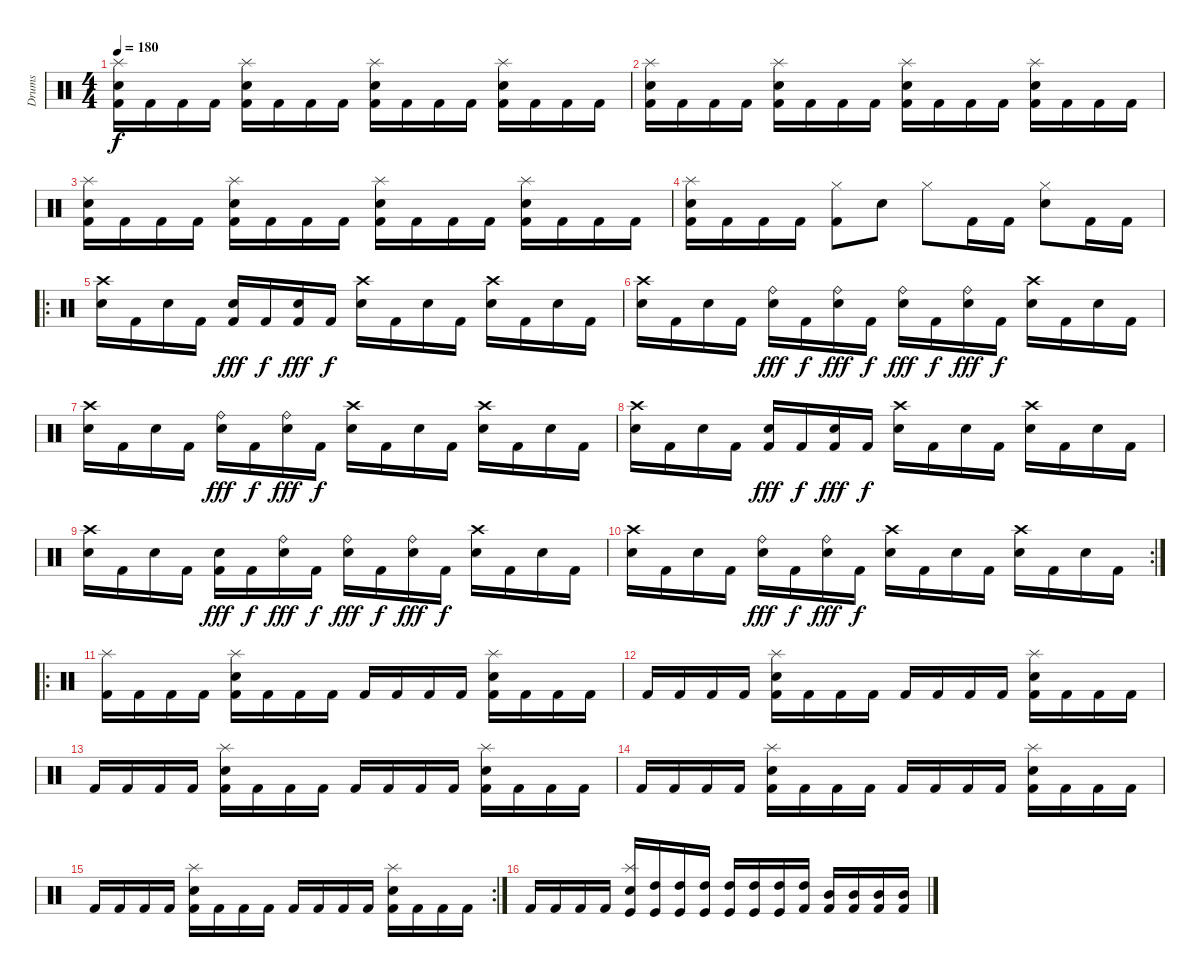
\track ("Drums" "Drums") {instrument percussion}
\staff {score}
\articulation defaults
\ts (4 4)
\tempo 180
\clef neutral
\ks c
("Kick (hit) 2" "Snare (hit) 2" "Splash (hit)").16{dy f} "Kick (hit) 2".16 "Kick (hit) 2".16 "Kick (hit) 2".16 ("Kick (hit) 2" "Snare (hit) 2" "Splash (hit)").16 "Kick (hit) 2".16 "Kick (hit) 2".16 "Kick (hit) 2".16 ("Kick (hit) 2" "Snare (hit) 2" "Splash (hit)").16 "Kick (hit) 2".16 "Kick (hit) 2".16 "Kick (hit) 2".16 ("Kick (hit) 2" "Snare (hit) 2" "Splash (hit)").16 "Kick (hit) 2".16 "Kick (hit) 2".16 "Kick (hit) 2".16 |
("Kick (hit) 2" "Snare (hit) 2" "Splash (hit)").16 "Kick (hit) 2".16 "Kick (hit) 2".16 "Kick (hit) 2".16 ("Kick (hit) 2" "Snare (hit) 2" "Splash (hit)").16 "Kick (hit) 2".16 "Kick (hit) 2".16 "Kick (hit) 2".16 ("Kick (hit) 2" "Snare (hit) 2" "Splash (hit)").16 "Kick (hit) 2".16 "Kick (hit) 2".16 "Kick (hit) 2".16 ("Kick (hit) 2" "Snare (hit) 2" "Splash (hit)").16 "Kick (hit) 2".16 "Kick (hit) 2".16 "Kick (hit) 2".16 |
("Kick (hit) 2" "Snare (hit) 2" "Splash (hit)").16 "Kick (hit) 2".16 "Kick (hit) 2".16 "Kick (hit) 2".16 ("Kick (hit) 2" "Snare (hit) 2" "Splash (hit)").16 "Kick (hit) 2".16 "Kick (hit) 2".16 "Kick (hit) 2".16 ("Kick (hit) 2" "Snare (hit) 2" "Splash (hit)").16 "Kick (hit) 2".16 "Kick (hit) 2".16 "Kick (hit) 2".16 ("Kick (hit) 2" "Snare (hit) 2" "Splash (hit)").16 "Kick (hit) 2".16 "Kick (hit) 2".16 "Kick (hit) 2".16 |
("Kick (hit) 2" "Snare (hit) 2" "Splash (hit)").16 "Kick (hit) 2".16 "Kick (hit) 2".16 "Kick (hit) 2".16 ("Kick (hit) 2" "Hi-Hat (closed)").8 "Snare (hit) 2".8 "Hi-Hat (closed)".8 "Kick (hit) 2".16 "Kick (hit) 2".16 ("Snare (hit) 2" "Hi-Hat (closed)").8 "Kick (hit) 2".16 "Kick (hit) 2".16 |
\ro
("Snare (hit) 2" "Crash high (hit)").16 "Kick (hit) 2".16 "Snare (hit) 2".16 "Kick (hit) 2".16 ("Kick (hit) 2" "Snare (hit) 2").16{dy fff} "Kick (hit) 2".16{dy f} ("Kick (hit) 2" "Snare (hit) 2").16{dy fff} "Kick (hit) 2".16{dy f} ("Snare (hit) 2" "Crash high (hit)").16 "Kick (hit) 2".16 "Snare (hit) 2".16 "Kick (hit) 2".16 ("Snare (hit) 2" "Crash high (hit)").16 "Kick (hit) 2".16 "Snare (hit) 2".16 "Kick (hit) 2".16 |
("Snare (hit) 2" "Crash high (hit)").16 "Kick (hit) 2".16 "Snare (hit) 2".16 "Kick (hit) 2".16 ("Ride (bell)" "Snare (hit) 2").16{dy fff} "Kick (hit) 2".16{dy f} ("Ride (bell)" "Snare (hit) 2").16{dy fff} "Kick (hit) 2".16{dy f} ("Ride (bell)" "Snare (hit) 2").16{dy fff} "Kick (hit) 2".16{dy f} ("Ride (bell)" "Snare (hit) 2").16{dy fff} "Kick (hit) 2".16{dy f} ("Snare (hit) 2" "Crash high (hit)").16 "Kick (hit) 2".16 "Snare (hit) 2".16 "Kick (hit) 2".16 |
("Snare (hit) 2" "Crash high (hit)").16 "Kick (hit) 2".16 "Snare (hit) 2".16 "Kick (hit) 2".16 ("Ride (bell)" "Snare (hit) 2").16{dy fff} "Kick (hit) 2".16{dy f} ("Ride (bell)" "Snare (hit) 2").16{dy fff} "Kick (hit) 2".16{dy f} ("Snare (hit) 2" "Crash high (hit)").16 "Kick (hit) 2".16 "Snare (hit) 2".16 "Kick (hit) 2".16 ("Snare (hit) 2" "Crash high (hit)").16 "Kick (hit) 2".16 "Snare (hit) 2".16 "Kick (hit) 2".16 |
("Snare (hit) 2" "Crash high (hit)").16 "Kick (hit) 2".16 "Snare (hit) 2".16 "Kick (hit) 2".16 ("Kick (hit) 2" "Snare (hit) 2").16{dy fff} "Kick (hit) 2".16{dy f} ("Kick (hit) 2" "Snare (hit) 2").16{dy fff} "Kick (hit) 2".16{dy f} ("Snare (hit) 2" "Crash high (hit)").16 "Kick (hit) 2".16 "Snare (hit) 2".16 "Kick (hit) 2".16 ("Snare (hit) 2" "Crash high (hit)").16 "Kick (hit) 2".16 "Snare (hit) 2".16 "Kick (hit) 2".16 |
("Snare (hit) 2" "Crash high (hit)").16 "Kick (hit) 2".16 "Snare (hit) 2".16 "Kick (hit) 2".16 ("Kick (hit) 2" "Snare (hit) 2").16{dy fff} "Kick (hit) 2".16{dy f} ("Ride (bell)" "Snare (hit) 2").16{dy fff} "Kick (hit) 2".16{dy f} ("Ride (bell)" "Snare (hit) 2").16{dy fff} "Kick (hit) 2".16{dy f} ("Ride (bell)" "Snare (hit) 2").16{dy fff} "Kick (hit) 2".16{dy f} ("Snare (hit) 2" "Crash high (hit)").16 "Kick (hit) 2".16 "Snare (hit) 2".16 "Kick (hit) 2".16 |
\rc 2
("Snare (hit) 2" "Crash high (hit)").16 "Kick (hit) 2".16 "Snare (hit) 2".16 "Kick (hit) 2".16 ("Ride (bell)" "Snare (hit) 2").16{dy fff} "Kick (hit) 2".16{dy f} ("Ride (bell)" "Snare (hit) 2").16{dy fff} "Kick (hit) 2".16{dy f} ("Snare (hit) 2" "Crash high (hit)").16 "Kick (hit) 2".16 "Snare (hit) 2".16 "Kick (hit) 2".16 ("Snare (hit) 2" "Crash high (hit)").16 "Kick (hit) 2".16 "Snare (hit) 2".16 "Kick (hit) 2".16 |
\ro
("Kick (hit) 2" "Splash (hit)").16 "Kick (hit) 2".16 "Kick (hit) 2".16 "Kick (hit) 2".16 ("Kick (hit) 2" "Snare (hit) 2" "Splash (hit)").16 "Kick (hit) 2".16 "Kick (hit) 2".16 "Kick (hit) 2".16 "Kick (hit) 2".16 "Kick (hit) 2".16 "Kick (hit) 2".16 "Kick (hit) 2".16 ("Kick (hit) 2" "Snare (hit) 2" "Splash (hit)").16 "Kick (hit) 2".16 "Kick (hit) 2".16 "Kick (hit) 2".16 |
"Kick (hit) 2".16 "Kick (hit) 2".16 "Kick (hit) 2".16 "Kick (hit) 2".16 ("Kick (hit) 2" "Snare (hit) 2" "Splash (hit)").16 "Kick (hit) 2".16 "Kick (hit) 2".16 "Kick (hit) 2".16 "Kick (hit) 2".16 "Kick (hit) 2".16 "Kick (hit) 2".16 "Kick (hit) 2".16 ("Kick (hit) 2" "Snare (hit) 2" "Splash (hit)").16 "Kick (hit) 2".16 "Kick (hit) 2".16 "Kick (hit) 2".16 |
"Kick (hit) 2".16 "Kick (hit) 2".16 "Kick (hit) 2".16 "Kick (hit) 2".16 ("Kick (hit) 2" "Snare (hit) 2" "Splash (hit)").16 "Kick (hit) 2".16 "Kick (hit) 2".16 "Kick (hit) 2".16 "Kick (hit) 2".16 "Kick (hit) 2".16 "Kick (hit) 2".16 "Kick (hit) 2".16 ("Kick (hit) 2" "Snare (hit) 2" "Splash (hit)").16 "Kick (hit) 2".16 "Kick (hit) 2".16 "Kick (hit) 2".16 |
"Kick (hit) 2".16 "Kick (hit) 2".16 "Kick (hit) 2".16 "Kick (hit) 2".16 ("Kick (hit) 2" "Snare (hit) 2" "Splash (hit)").16 "Kick (hit) 2".16 "Kick (hit) 2".16 "Kick (hit) 2".16 "Kick (hit) 2".16 "Kick (hit) 2".16 "Kick (hit) 2".16 "Kick (hit) 2".16 ("Kick (hit) 2" "Snare (hit) 2" "Splash (hit)").16 "Kick (hit) 2".16 "Kick (hit) 2".16 "Kick (hit) 2".16 |
\rc 2 "Kick (hit) 2".16 "Kick (hit) 2".16 "Kick (hit) 2".16 "Kick (hit) 2".16
("Kick (hit) 2" "Snare (hit) 2" "Splash (hit)").16 "Kick (hit) 2".16 "Kick (hit) 2".16 "Kick (hit) 2".16 "Kick (hit) 2".16 "Kick (hit) 2".16 "Kick (hit) 2".16 "Kick (hit) 2".16 ("Kick (hit) 2" "Snare (hit) 2" "Splash (hit)").16 "Kick (hit) 2".16 "Kick (hit) 2".16 "Kick (hit) 2".16 |
"Kick (hit) 2".16 "Kick (hit) 2".16 "Kick (hit) 2".16 "Kick (hit) 2".16 ("Kick (hit)" "Snare (hit) 2" "Splash (hit)").16 ("Kick (hit)" "High Tom (hit)").16 ("Kick (hit)" "High Tom (hit)").16 ("Kick (hit)" "High Tom (hit)").16 ("Kick (hit)" "High Tom (hit)").16 ("Kick (hit)" "High Tom (hit)").16 ("Kick (hit)" "High Tom (hit)").16 ("Kick (hit) 2" "High Tom (hit)").16 ("Kick (hit) 2" "Mid Tom (hit)").16 ("Kick (hit) 2" "Mid Tom (hit)").16 ("Kick (hit) 2" "Mid Tom (hit)").16 ("Kick (hit) 2" "Mid Tom (hit)").16
